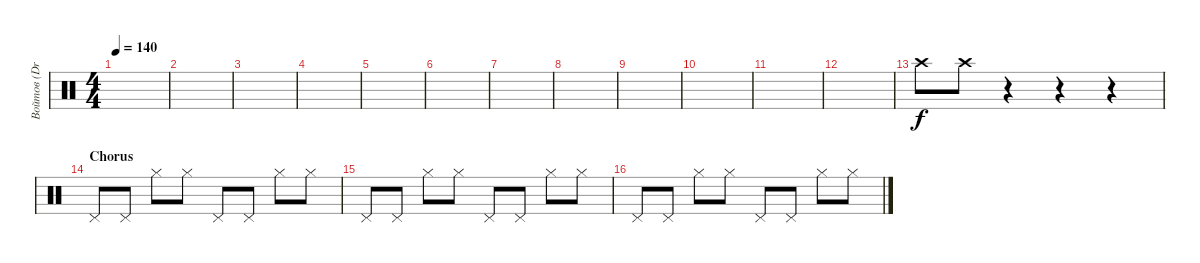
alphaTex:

\track ("Войтов (Drums)" "Войтов (Dr") {instrument percussion}
\staff {score}
\articulation defaults
\ts (4 4)
\tempo 140
\clef neutral
\ks c
|
|
|
|
|
|
|
|
|
|
|
|
"Crash high (hit)".8 "Crash high (hit)".8 r.4 r.4 r.4 |
\section ("" "Chorus")
"Pedal Hi-Hat (hit)".8 "Pedal Hi-Hat (hit)".8 "Hi-Hat (closed)".8 "Hi-Hat (closed)".8 "Pedal Hi-Hat (hit)".8 "Pedal Hi-Hat (hit)".8 "Hi-Hat (closed)".8 "Hi-Hat (closed)".8 |
"Pedal Hi-Hat (hit)".8 "Pedal Hi-Hat (hit)".8 "Hi-Hat (closed)".8 "Hi-Hat (closed)".8 "Pedal Hi-Hat (hit)".8 "Pedal Hi-Hat (hit)".8 "Hi-Hat (closed)".8 "Hi-Hat (closed)".8 |
"Pedal Hi-Hat (hit)".8 "Pedal Hi-Hat (hit)".8 "Hi-Hat (closed)".8 "Hi-Hat (closed)".8 "Pedal Hi-Hat (hit)".8 "Pedal Hi-Hat (hit)".8 "Hi-Hat (closed)".8 "Hi-Hat (closed)".8
